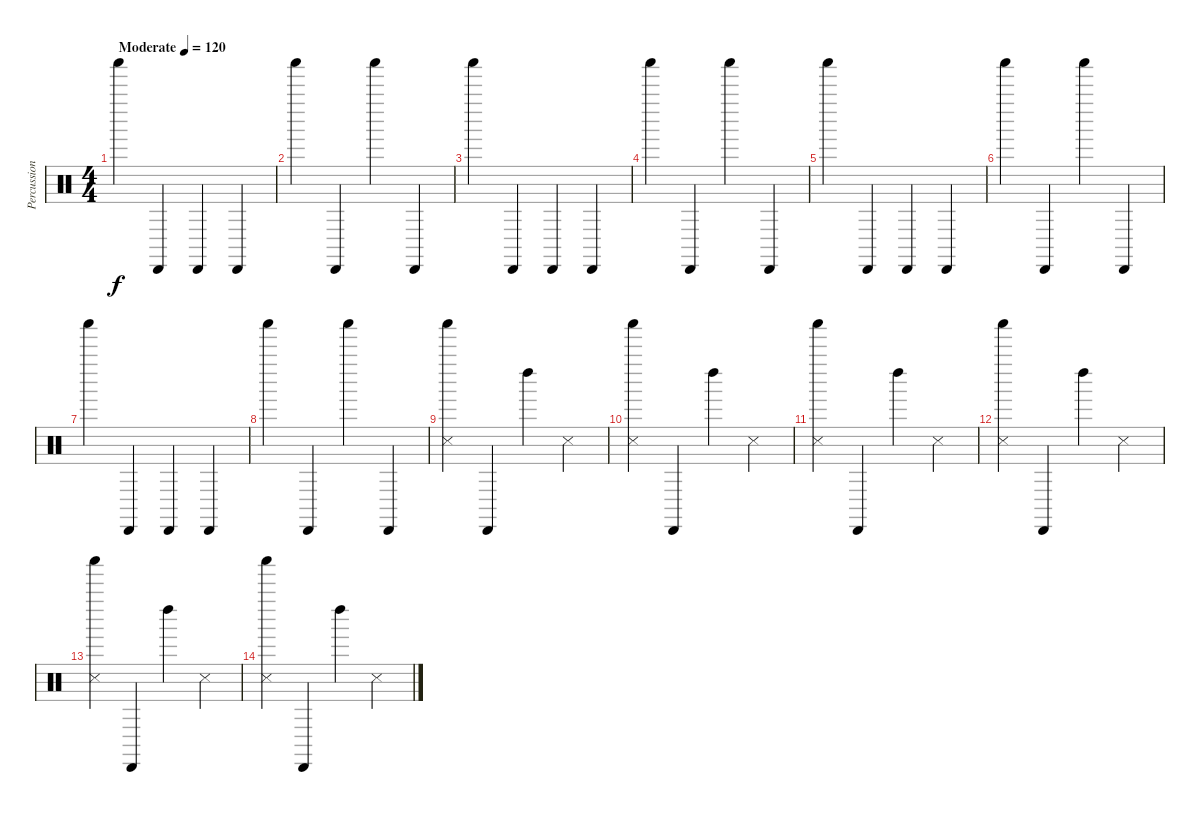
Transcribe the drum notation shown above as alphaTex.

\track ("Percussion" "Percussion") {instrument percussion}
\staff {score}
\articulation defaults
\ts (4 4)
\tempo (120 "Moderate")
\clef neutral
\ks c "Shaker (hit)".4{dy f} "Cabasa (hit)".4 "Cabasa (hit)".4 "Cabasa (hit)".4
|
"Shaker (hit)".4 "Cabasa (hit)".4 "Shaker (hit)".4 "Cabasa (hit)".4 |
"Shaker (hit)".4 "Cabasa (hit)".4 "Cabasa (hit)".4 "Cabasa (hit)".4 |
"Shaker (hit)".4 "Cabasa (hit)".4 "Shaker (hit)".4 "Cabasa (hit)".4 |
"Shaker (hit)".4 "Cabasa (hit)".4 "Cabasa (hit)".4 "Cabasa (hit)".4 |
"Shaker (hit)".4 "Cabasa (hit)".4 "Shaker (hit)".4 "Cabasa (hit)".4 |
"Shaker (hit)".4 "Cabasa (hit)".4 "Cabasa (hit)".4 "Cabasa (hit)".4 |
"Shaker (hit)".4 "Cabasa (hit)".4 "Shaker (hit)".4 "Cabasa (hit)".4 |
("Shaker (hit)" "Snare (side stick) 3").4 "Cabasa (hit)".4 "Left Maraca (hit)".4 "Snare (side stick) 3".4 |
("Shaker (hit)" "Snare (side stick) 3").4 "Cabasa (hit)".4 "Left Maraca (hit)".4 "Snare (side stick) 3".4 |
("Shaker (hit)" "Snare (side stick) 3").4 "Cabasa (hit)".4 "Left Maraca (hit)".4 "Snare (side stick) 3".4 |
("Shaker (hit)" "Snare (side stick) 3").4 "Cabasa (hit)".4 "Left Maraca (hit)".4 "Snare (side stick) 3".4 |
("Shaker (hit)" "Snare (side stick) 3").4 "Cabasa (hit)".4 "Left Maraca (hit)".4 "Snare (side stick) 3".4 |
("Shaker (hit)" "Snare (side stick) 3").4 "Cabasa (hit)".4 "Left Maraca (hit)".4 "Snare (side stick) 3".4
